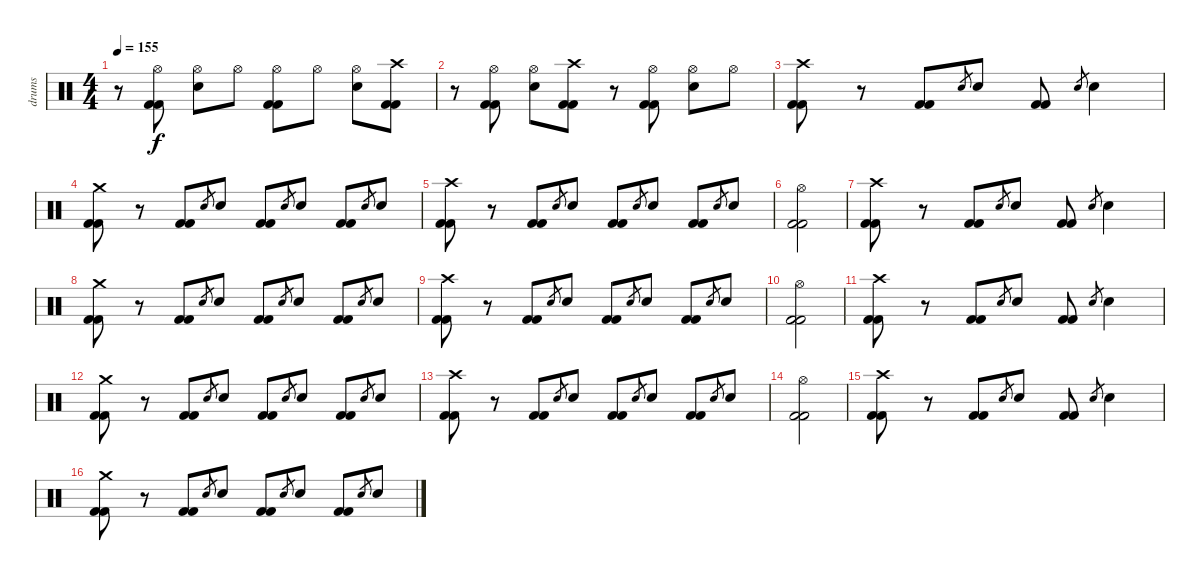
\track ("drums" "drums") {instrument percussion}
\staff {score}
\articulation defaults
\ts (4 4)
\tempo 155
\clef neutral
\ks c
r.8{dy f} ("Hi-Hat (open)" "Kick (hit) 2" "Kick (hit) 2").8 ("Hi-Hat (open)" "Electric Snare (hit)").8 "Hi-Hat (open)".8 ("Hi-Hat (open)" "Kick (hit) 2" "Kick (hit) 2").8 "Hi-Hat (open)".8 ("Hi-Hat (open)" "Electric Snare (hit)").8 ("Crash high (hit)" "Kick (hit) 2" "Kick (hit) 2").8 |
r.8 ("Hi-Hat (open)" "Kick (hit) 2" "Kick (hit) 2").8 ("Hi-Hat (open)" "Electric Snare (hit)").8 ("Crash high (hit)" "Kick (hit) 2" "Kick (hit) 2").8 r.8 ("Hi-Hat (open)" "Kick (hit) 2" "Kick (hit) 2").8 ("Hi-Hat (open)" "Electric Snare (hit)").8 "Hi-Hat (open)".8 |
("Crash high (hit)" "Kick (hit) 2" "Kick (hit) 2").8 r.8 ("Kick (hit) 2" "Kick (hit) 2").8 "Electric Snare (hit)".8{gr} "Electric Snare (hit)".8 ("Kick (hit) 2" "Kick (hit) 2").8 "Electric Snare (hit)".8{gr} "Electric Snare (hit)".4 |
("Crash medium (hit)" "Kick (hit) 2" "Kick (hit) 2").8 r.8 ("Kick (hit) 2" "Kick (hit) 2").8 "Electric Snare (hit)".8{gr} "Electric Snare (hit)".8 ("Kick (hit) 2" "Kick (hit) 2").8 "Electric Snare (hit)".8{gr} "Electric Snare (hit)".8 ("Kick (hit) 2" "Kick (hit) 2").8 "Electric Snare (hit)".8{gr} "Electric Snare (hit)".8 |
("Crash high (hit)" "Kick (hit) 2" "Kick (hit) 2").8 r.8 ("Kick (hit) 2" "Kick (hit) 2").8 "Electric Snare (hit)".8{gr} "Electric Snare (hit)".8 ("Kick (hit) 2" "Kick (hit) 2").8 "Electric Snare (hit)".8{gr} "Electric Snare (hit)".8 ("Kick (hit) 2" "Kick (hit) 2").8 "Electric Snare (hit)".8{gr} "Electric Snare (hit)".8 |
("Hi-Hat (open)" "Kick (hit) 2" "Kick (hit) 2").2 |
("Crash high (hit)" "Kick (hit) 2" "Kick (hit) 2").8 r.8 ("Kick (hit) 2" "Kick (hit) 2").8 "Electric Snare (hit)".8{gr} "Electric Snare (hit)".8 ("Kick (hit) 2" "Kick (hit) 2").8 "Electric Snare (hit)".8{gr} "Electric Snare (hit)".4 |
("Crash medium (hit)" "Kick (hit) 2" "Kick (hit) 2").8 r.8 ("Kick (hit) 2" "Kick (hit) 2").8 "Electric Snare (hit)".8{gr} "Electric Snare (hit)".8 ("Kick (hit) 2" "Kick (hit) 2").8 "Electric Snare (hit)".8{gr} "Electric Snare (hit)".8 ("Kick (hit) 2" "Kick (hit) 2").8 "Electric Snare (hit)".8{gr} "Electric Snare (hit)".8 |
("Crash high (hit)" "Kick (hit) 2" "Kick (hit) 2").8 r.8 ("Kick (hit) 2" "Kick (hit) 2").8 "Electric Snare (hit)".8{gr} "Electric Snare (hit)".8 ("Kick (hit) 2" "Kick (hit) 2").8 "Electric Snare (hit)".8{gr} "Electric Snare (hit)".8 ("Kick (hit) 2" "Kick (hit) 2").8 "Electric Snare (hit)".8{gr} "Electric Snare (hit)".8 |
("Hi-Hat (open)" "Kick (hit) 2" "Kick (hit) 2").2 |
("Crash high (hit)" "Kick (hit) 2" "Kick (hit) 2").8 r.8 ("Kick (hit) 2" "Kick (hit) 2").8 "Electric Snare (hit)".8{gr} "Electric Snare (hit)".8 ("Kick (hit) 2" "Kick (hit) 2").8 "Electric Snare (hit)".8{gr} "Electric Snare (hit)".4 |
("Crash medium (hit)" "Kick (hit) 2" "Kick (hit) 2").8 r.8 ("Kick (hit) 2" "Kick (hit) 2").8 "Electric Snare (hit)".8{gr} "Electric Snare (hit)".8 ("Kick (hit) 2" "Kick (hit) 2").8 "Electric Snare (hit)".8{gr} "Electric Snare (hit)".8 ("Kick (hit) 2" "Kick (hit) 2").8 "Electric Snare (hit)".8{gr} "Electric Snare (hit)".8 |
("Crash high (hit)" "Kick (hit) 2" "Kick (hit) 2").8 r.8 ("Kick (hit) 2" "Kick (hit) 2").8 "Electric Snare (hit)".8{gr} "Electric Snare (hit)".8 ("Kick (hit) 2" "Kick (hit) 2").8 "Electric Snare (hit)".8{gr} "Electric Snare (hit)".8 ("Kick (hit) 2" "Kick (hit) 2").8 "Electric Snare (hit)".8{gr} "Electric Snare (hit)".8 |
("Hi-Hat (open)" "Kick (hit) 2" "Kick (hit) 2").2 |
("Crash high (hit)" "Kick (hit) 2" "Kick (hit) 2").8 r.8 ("Kick (hit) 2" "Kick (hit) 2").8 "Electric Snare (hit)".8{gr} "Electric Snare (hit)".8 ("Kick (hit) 2" "Kick (hit) 2").8 "Electric Snare (hit)".8{gr} "Electric Snare (hit)".4 |
("Crash medium (hit)" "Kick (hit) 2" "Kick (hit) 2").8 r.8 ("Kick (hit) 2" "Kick (hit) 2").8 "Electric Snare (hit)".8{gr} "Electric Snare (hit)".8 ("Kick (hit) 2" "Kick (hit) 2").8 "Electric Snare (hit)".8{gr} "Electric Snare (hit)".8 ("Kick (hit) 2" "Kick (hit) 2").8 "Electric Snare (hit)".8{gr} "Electric Snare (hit)".8
